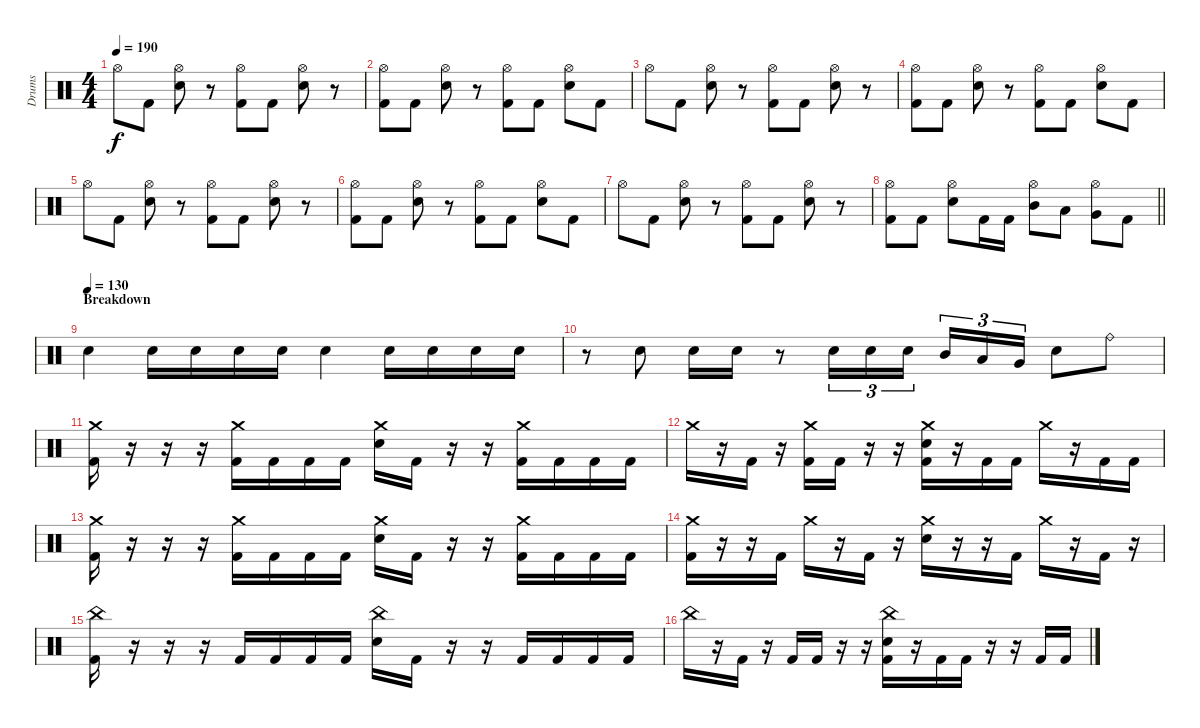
\track ("Drums" "Drums") {instrument percussion}
\staff {score}
\articulation defaults
\ts (4 4)
\section ("" "")
\tempo 190
\clef neutral
\ks c "Hi-Hat (open)".8{dy f} "Kick (hit) 2".8
("Hi-Hat (open)" "Electric Snare (hit)").8 r.8 ("Hi-Hat (open)" "Kick (hit) 2").8 "Kick (hit) 2".8 ("Hi-Hat (open)" "Electric Snare (hit)").8 r.8 |
("Hi-Hat (open)" "Kick (hit) 2").8 "Kick (hit) 2".8 ("Hi-Hat (open)" "Electric Snare (hit)").8 r.8 ("Hi-Hat (open)" "Kick (hit) 2").8 "Kick (hit) 2".8 ("Hi-Hat (open)" "Electric Snare (hit)").8 "Kick (hit) 2".8 |
"Hi-Hat (open)".8 "Kick (hit) 2".8 ("Hi-Hat (open)" "Electric Snare (hit)").8 r.8 ("Hi-Hat (open)" "Kick (hit) 2").8 "Kick (hit) 2".8 ("Hi-Hat (open)" "Electric Snare (hit)").8 r.8 |
("Hi-Hat (open)" "Kick (hit) 2").8 "Kick (hit) 2".8 ("Hi-Hat (open)" "Electric Snare (hit)").8 r.8 ("Hi-Hat (open)" "Kick (hit) 2").8 "Kick (hit) 2".8 ("Hi-Hat (open)" "Electric Snare (hit)").8 "Kick (hit) 2".8 |
"Hi-Hat (open)".8 "Kick (hit) 2".8 ("Hi-Hat (open)" "Electric Snare (hit)").8 r.8 ("Hi-Hat (open)" "Kick (hit) 2").8 "Kick (hit) 2".8 ("Hi-Hat (open)" "Electric Snare (hit)").8 r.8 |
("Hi-Hat (open)" "Kick (hit) 2").8 "Kick (hit) 2".8 ("Hi-Hat (open)" "Electric Snare (hit)").8 r.8 ("Hi-Hat (open)" "Kick (hit) 2").8 "Kick (hit) 2".8 ("Hi-Hat (open)" "Electric Snare (hit)").8 "Kick (hit) 2".8 |
"Hi-Hat (open)".8 "Kick (hit) 2".8 ("Hi-Hat (open)" "Electric Snare (hit)").8 r.8 ("Hi-Hat (open)" "Kick (hit) 2").8 "Kick (hit) 2".8 ("Hi-Hat (open)" "Electric Snare (hit)").8 r.8 |
\barLineRight lightlight
("Hi-Hat (open)" "Kick (hit) 2").8 "Kick (hit) 2".8 ("Hi-Hat (open)" "Electric Snare (hit)").8 "Kick (hit) 2".16 "Kick (hit) 2".16 ("Hi-Hat (open)" "Mid Tom (hit)").8 "Low Tom (hit)".8 ("Hi-Hat (open)" "Very Low Tom (hit)").8 "Kick (hit) 2".8 |
\section ("" "Breakdown")
\tempo (130)
"Electric Snare (hit)".4 "Electric Snare (hit)".16 "Electric Snare (hit)".16 "Electric Snare (hit)".16 "Electric Snare (hit)".16 "Electric Snare (hit)".4 "Electric Snare (hit)".16 "Electric Snare (hit)".16 "Electric Snare (hit)".16 "Electric Snare (hit)".16 |
r.8 "Electric Snare (hit)".8 "Electric Snare (hit)".16 "Electric Snare (hit)".16 r.8 "Electric Snare (hit)".16{tu (3 2)} "Electric Snare (hit)".16{tu (3 2)} "Electric Snare (hit)".16{tu (3 2) beam splitsecondary} "Mid Tom (hit)".16{tu (3 2)} "Low Tom (hit)".16{tu (3 2)} "Very Low Tom (hit)".16{tu (3 2)} "Electric Snare (hit)".8 "Ride (bell)".8 |
("Crash medium (hit)" "Kick (hit) 2").16 r.16 r.16 r.16 ("Crash medium (hit)" "Kick (hit) 2").16 "Kick (hit) 2".16 "Kick (hit) 2".16 "Kick (hit) 2".16 ("Crash medium (hit)" "Electric Snare (hit)").16 "Kick (hit) 2".16 r.16 r.16 ("Crash medium (hit)" "Kick (hit) 2").16 "Kick (hit) 2".16 "Kick (hit) 2".16 "Kick (hit) 2".16 |
"Crash medium (hit)".16 r.16 "Kick (hit) 2".16 r.16 ("Crash medium (hit)" "Kick (hit) 2").16 "Kick (hit) 2".16 r.16 r.16 ("Crash medium (hit)" "Electric Snare (hit)" "Kick (hit) 2").16 r.16 "Kick (hit) 2".16 "Kick (hit) 2".16 "Crash medium (hit)".16 r.16 "Kick (hit) 2".16 "Kick (hit) 2".16 |
("Crash medium (hit)" "Kick (hit) 2").16 r.16 r.16 r.16 ("Crash medium (hit)" "Kick (hit) 2").16 "Kick (hit) 2".16 "Kick (hit) 2".16 "Kick (hit) 2".16 ("Crash medium (hit)" "Electric Snare (hit)").16 "Kick (hit) 2".16 r.16 r.16 ("Crash medium (hit)" "Kick (hit) 2").16 "Kick (hit) 2".16 "Kick (hit) 2".16 "Kick (hit) 2".16 |
("Crash medium (hit)" "Kick (hit) 2").16 r.16 r.16 "Kick (hit) 2".16 "Crash medium (hit)".16 r.16 "Kick (hit) 2".16 r.16 ("Crash medium (hit)" "Electric Snare (hit)").16 r.16 r.16 "Kick (hit) 2".16 "Crash medium (hit)".16 r.16 "Kick (hit) 2".16 r.16 |
("China (hit)" "Kick (hit) 2").16 r.16 r.16 r.16 "Kick (hit) 2".16 "Kick (hit) 2".16 "Kick (hit) 2".16 "Kick (hit) 2".16 ("China (hit)" "Electric Snare (hit)").16 "Kick (hit) 2".16 r.16 r.16 "Kick (hit) 2".16 "Kick (hit) 2".16 "Kick (hit) 2".16 "Kick (hit) 2".16 |
"China (hit)".16 r.16 "Kick (hit) 2".16 r.16 "Kick (hit) 2".16 "Kick (hit) 2".16 r.16 r.16 ("China (hit)" "Electric Snare (hit)" "Kick (hit) 2").16 r.16 "Kick (hit) 2".16 "Kick (hit) 2".16 r.16 r.16 "Kick (hit) 2".16 "Kick (hit) 2".16
